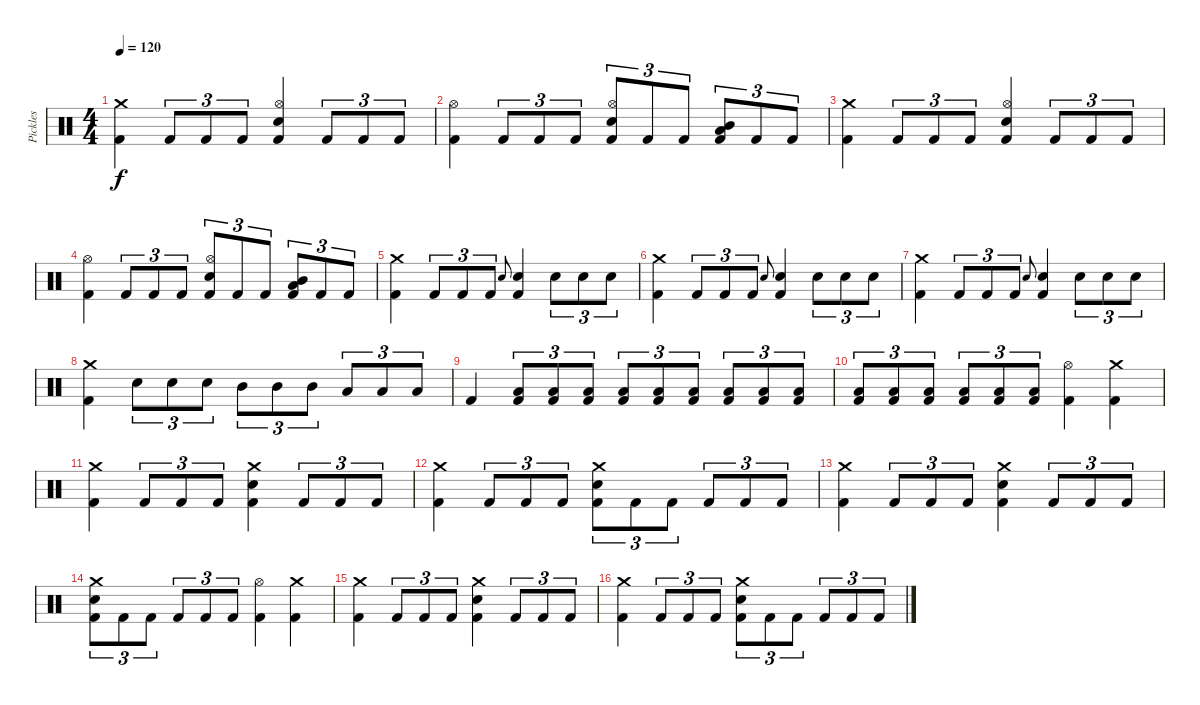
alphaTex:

\track ("Pickles" "Pickles") {instrument percussion}
\staff {score}
\articulation defaults
\ts (4 4)
\tempo 120
\clef neutral
\ks c
("Crash medium (hit)" "Kick (hit) 2").4{dy f} "Kick (hit) 2".8{tu (3 2)} "Kick (hit) 2".8{tu (3 2)} "Kick (hit) 2".8{tu (3 2)} ("Hi-Hat (open)" "Electric Snare (hit)" "Kick (hit) 2").4 "Kick (hit) 2".8{tu (3 2)} "Kick (hit) 2".8{tu (3 2)} "Kick (hit) 2".8{tu (3 2)} |
("Hi-Hat (open)" "Kick (hit) 2").4 "Kick (hit) 2".8{tu (3 2)} "Kick (hit) 2".8{tu (3 2)} "Kick (hit) 2".8{tu (3 2)} ("Hi-Hat (open)" "Electric Snare (hit)" "Kick (hit) 2").8{tu (3 2)} "Kick (hit) 2".8{tu (3 2)} "Kick (hit) 2".8{tu (3 2)} ("Mid Tom (hit)" "Low Tom (hit)" "Kick (hit) 2").8{tu (3 2)} "Kick (hit) 2".8{tu (3 2)} "Kick (hit) 2".8{tu (3 2)} |
("Crash medium (hit)" "Kick (hit) 2").4 "Kick (hit) 2".8{tu (3 2)} "Kick (hit) 2".8{tu (3 2)} "Kick (hit) 2".8{tu (3 2)} ("Hi-Hat (open)" "Electric Snare (hit)" "Kick (hit) 2").4 "Kick (hit) 2".8{tu (3 2)} "Kick (hit) 2".8{tu (3 2)} "Kick (hit) 2".8{tu (3 2)} |
("Hi-Hat (open)" "Kick (hit) 2").4 "Kick (hit) 2".8{tu (3 2)} "Kick (hit) 2".8{tu (3 2)} "Kick (hit) 2".8{tu (3 2)} ("Hi-Hat (open)" "Electric Snare (hit)" "Kick (hit) 2").8{tu (3 2)} "Kick (hit) 2".8{tu (3 2)} "Kick (hit) 2".8{tu (3 2)} ("Mid Tom (hit)" "Low Tom (hit)" "Kick (hit) 2").8{tu (3 2)} "Kick (hit) 2".8{tu (3 2)} "Kick (hit) 2".8{tu (3 2)} |
("Crash medium (hit)" "Kick (hit) 2").4 "Kick (hit) 2".8{tu (3 2)} "Kick (hit) 2".8{tu (3 2)} "Kick (hit) 2".8{tu (3 2)} "Electric Snare (hit)".8{gr onbeat} ("Electric Snare (hit)" "Kick (hit) 2").4 "Electric Snare (hit)".8{tu (3 2)} "Electric Snare (hit)".8{tu (3 2)} "Electric Snare (hit)".8{tu (3 2)} |
("Crash medium (hit)" "Kick (hit) 2").4 "Kick (hit) 2".8{tu (3 2)} "Kick (hit) 2".8{tu (3 2)} "Kick (hit) 2".8{tu (3 2)} "Electric Snare (hit)".8{gr onbeat} ("Electric Snare (hit)" "Kick (hit) 2").4 "Electric Snare (hit)".8{tu (3 2)} "Electric Snare (hit)".8{tu (3 2)} "Electric Snare (hit)".8{tu (3 2)} |
("Crash medium (hit)" "Kick (hit) 2").4 "Kick (hit) 2".8{tu (3 2)} "Kick (hit) 2".8{tu (3 2)} "Kick (hit) 2".8{tu (3 2)} "Electric Snare (hit)".8{gr onbeat} ("Electric Snare (hit)" "Kick (hit) 2").4 "Electric Snare (hit)".8{tu (3 2)} "Electric Snare (hit)".8{tu (3 2)} "Electric Snare (hit)".8{tu (3 2)} |
("Crash medium (hit)" "Kick (hit) 2").4 "Electric Snare (hit)".8{tu (3 2)} "Electric Snare (hit)".8{tu (3 2)} "Electric Snare (hit)".8{tu (3 2)} "Mid Tom (hit)".8{tu (3 2)} "Mid Tom (hit)".8{tu (3 2)} "Mid Tom (hit)".8{tu (3 2)} "Low Tom (hit)".8{tu (3 2)} "Low Tom (hit)".8{tu (3 2)} "Low Tom (hit)".8{tu (3 2)} |
"Kick (hit) 2".4 ("Low Tom (hit)" "Kick (hit) 2").8{tu (3 2)} ("Low Tom (hit)" "Kick (hit) 2").8{tu (3 2)} ("Low Tom (hit)" "Kick (hit) 2").8{tu (3 2)} ("Low Tom (hit)" "Kick (hit) 2").8{tu (3 2)} ("Low Tom (hit)" "Kick (hit) 2").8{tu (3 2)} ("Low Tom (hit)" "Kick (hit) 2").8{tu (3 2)} ("Low Tom (hit)" "Kick (hit) 2").8{tu (3 2)} ("Low Tom (hit)" "Kick (hit) 2").8{tu (3 2)} ("Low Tom (hit)" "Kick (hit) 2").8{tu (3 2)} |
("Low Tom (hit)" "Kick (hit) 2").8{tu (3 2)} ("Low Tom (hit)" "Kick (hit) 2").8{tu (3 2)} ("Low Tom (hit)" "Kick (hit) 2").8{tu (3 2)} ("Low Tom (hit)" "Kick (hit) 2").8{tu (3 2)} ("Low Tom (hit)" "Kick (hit) 2").8{tu (3 2)} ("Low Tom (hit)" "Kick (hit) 2").8{tu (3 2)} ("Hi-Hat (open)" "Kick (hit) 2").4 ("Crash medium (hit)" "Kick (hit) 2").4 |
("Crash medium (hit)" "Kick (hit) 2").4 "Kick (hit) 2".8{tu (3 2)} "Kick (hit) 2".8{tu (3 2)} "Kick (hit) 2".8{tu (3 2)} ("Crash medium (hit)" "Electric Snare (hit)" "Kick (hit) 2").4 "Kick (hit) 2".8{tu (3 2)} "Kick (hit) 2".8{tu (3 2)} "Kick (hit) 2".8{tu (3 2)} |
("Crash medium (hit)" "Kick (hit) 2").4 "Kick (hit) 2".8{tu (3 2)} "Kick (hit) 2".8{tu (3 2)} "Kick (hit) 2".8{tu (3 2)} ("Crash medium (hit)" "Electric Snare (hit)" "Kick (hit) 2").8{tu (3 2)} "Kick (hit) 2".8{tu (3 2)} "Kick (hit) 2".8{tu (3 2)} "Kick (hit) 2".8{tu (3 2)} "Kick (hit) 2".8{tu (3 2)} "Kick (hit) 2".8{tu (3 2)} |
("Crash medium (hit)" "Kick (hit) 2").4 "Kick (hit) 2".8{tu (3 2)} "Kick (hit) 2".8{tu (3 2)} "Kick (hit) 2".8{tu (3 2)} ("Crash medium (hit)" "Electric Snare (hit)" "Kick (hit) 2").4 "Kick (hit) 2".8{tu (3 2)} "Kick (hit) 2".8{tu (3 2)} "Kick (hit) 2".8{tu (3 2)} |
("Crash medium (hit)" "Electric Snare (hit)" "Kick (hit) 2").8{tu (3 2)} "Kick (hit) 2".8{tu (3 2)} "Kick (hit) 2".8{tu (3 2)} "Kick (hit) 2".8{tu (3 2)} "Kick (hit) 2".8{tu (3 2)} "Kick (hit) 2".8{tu (3 2)} ("Hi-Hat (open)" "Kick (hit) 2").4 ("Crash medium (hit)" "Kick (hit) 2").4 |
("Crash medium (hit)" "Kick (hit) 2").4 "Kick (hit) 2".8{tu (3 2)} "Kick (hit) 2".8{tu (3 2)} "Kick (hit) 2".8{tu (3 2)} ("Crash medium (hit)" "Electric Snare (hit)" "Kick (hit) 2").4 "Kick (hit) 2".8{tu (3 2)} "Kick (hit) 2".8{tu (3 2)} "Kick (hit) 2".8{tu (3 2)} |
("Crash medium (hit)" "Kick (hit) 2").4 "Kick (hit) 2".8{tu (3 2)} "Kick (hit) 2".8{tu (3 2)} "Kick (hit) 2".8{tu (3 2)} ("Crash medium (hit)" "Electric Snare (hit)" "Kick (hit) 2").8{tu (3 2)} "Kick (hit) 2".8{tu (3 2)} "Kick (hit) 2".8{tu (3 2)} "Kick (hit) 2".8{tu (3 2)} "Kick (hit) 2".8{tu (3 2)} "Kick (hit) 2".8{tu (3 2)}
